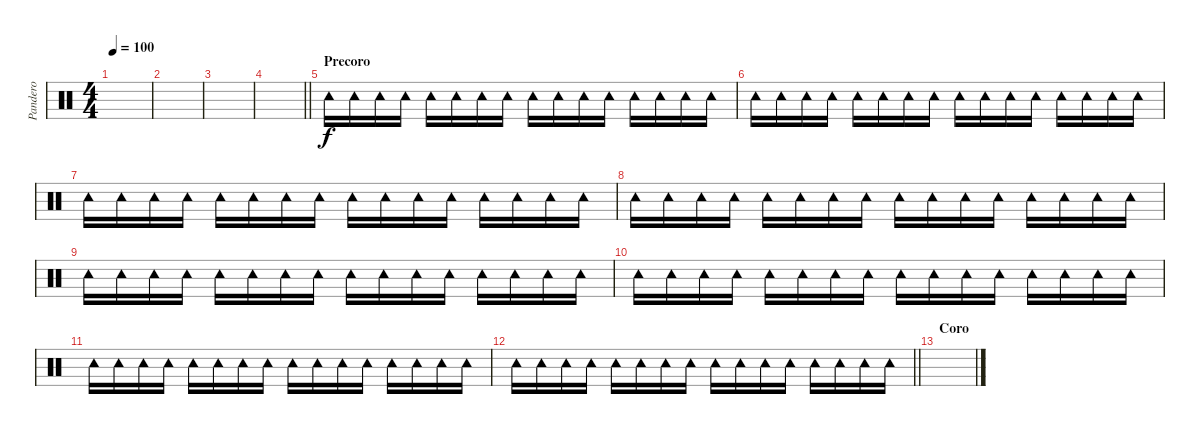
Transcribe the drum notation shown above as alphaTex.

\track ("Pandero" "Pandero") {instrument percussion}
\staff {score}
\articulation defaults
\ts (4 4)
\tempo 100
\clef neutral
\ks c
|
|
|
\barLineRight lightlight
|
\section ("" "Precoro")
"Tambourine (hit)".16 "Tambourine (hit)".16 "Tambourine (hit)".16 "Tambourine (hit)".16 "Tambourine (hit)".16 "Tambourine (hit)".16 "Tambourine (hit)".16 "Tambourine (hit)".16 "Tambourine (hit)".16 "Tambourine (hit)".16 "Tambourine (hit)".16 "Tambourine (hit)".16 "Tambourine (hit)".16 "Tambourine (hit)".16 "Tambourine (hit)".16 "Tambourine (hit)".16 |
"Tambourine (hit)".16 "Tambourine (hit)".16 "Tambourine (hit)".16 "Tambourine (hit)".16 "Tambourine (hit)".16 "Tambourine (hit)".16 "Tambourine (hit)".16 "Tambourine (hit)".16 "Tambourine (hit)".16 "Tambourine (hit)".16 "Tambourine (hit)".16 "Tambourine (hit)".16 "Tambourine (hit)".16 "Tambourine (hit)".16 "Tambourine (hit)".16 "Tambourine (hit)".16 |
"Tambourine (hit)".16 "Tambourine (hit)".16 "Tambourine (hit)".16 "Tambourine (hit)".16 "Tambourine (hit)".16 "Tambourine (hit)".16 "Tambourine (hit)".16 "Tambourine (hit)".16 "Tambourine (hit)".16 "Tambourine (hit)".16 "Tambourine (hit)".16 "Tambourine (hit)".16 "Tambourine (hit)".16 "Tambourine (hit)".16 "Tambourine (hit)".16 "Tambourine (hit)".16 |
"Tambourine (hit)".16 "Tambourine (hit)".16 "Tambourine (hit)".16 "Tambourine (hit)".16 "Tambourine (hit)".16 "Tambourine (hit)".16 "Tambourine (hit)".16 "Tambourine (hit)".16 "Tambourine (hit)".16 "Tambourine (hit)".16 "Tambourine (hit)".16 "Tambourine (hit)".16 "Tambourine (hit)".16 "Tambourine (hit)".16 "Tambourine (hit)".16 "Tambourine (hit)".16 |
"Tambourine (hit)".16 "Tambourine (hit)".16 "Tambourine (hit)".16 "Tambourine (hit)".16 "Tambourine (hit)".16 "Tambourine (hit)".16 "Tambourine (hit)".16 "Tambourine (hit)".16 "Tambourine (hit)".16 "Tambourine (hit)".16 "Tambourine (hit)".16 "Tambourine (hit)".16 "Tambourine (hit)".16 "Tambourine (hit)".16 "Tambourine (hit)".16 "Tambourine (hit)".16 |
"Tambourine (hit)".16 "Tambourine (hit)".16 "Tambourine (hit)".16 "Tambourine (hit)".16 "Tambourine (hit)".16 "Tambourine (hit)".16 "Tambourine (hit)".16 "Tambourine (hit)".16 "Tambourine (hit)".16 "Tambourine (hit)".16 "Tambourine (hit)".16 "Tambourine (hit)".16 "Tambourine (hit)".16 "Tambourine (hit)".16 "Tambourine (hit)".16 "Tambourine (hit)".16 |
"Tambourine (hit)".16 "Tambourine (hit)".16 "Tambourine (hit)".16 "Tambourine (hit)".16 "Tambourine (hit)".16 "Tambourine (hit)".16 "Tambourine (hit)".16 "Tambourine (hit)".16 "Tambourine (hit)".16 "Tambourine (hit)".16 "Tambourine (hit)".16 "Tambourine (hit)".16 "Tambourine (hit)".16 "Tambourine (hit)".16 "Tambourine (hit)".16 "Tambourine (hit)".16 |
\barLineRight lightlight "Tambourine (hit)".16 "Tambourine (hit)".16 "Tambourine (hit)".16 "Tambourine (hit)".16 "Tambourine (hit)".16 "Tambourine (hit)".16 "Tambourine (hit)".16 "Tambourine (hit)".16 "Tambourine (hit)".16 "Tambourine (hit)".16 "Tambourine (hit)".16 "Tambourine (hit)".16 "Tambourine (hit)".16 "Tambourine (hit)".16 "Tambourine (hit)".16 "Tambourine (hit)".16
|
\section ("" "Coro")
